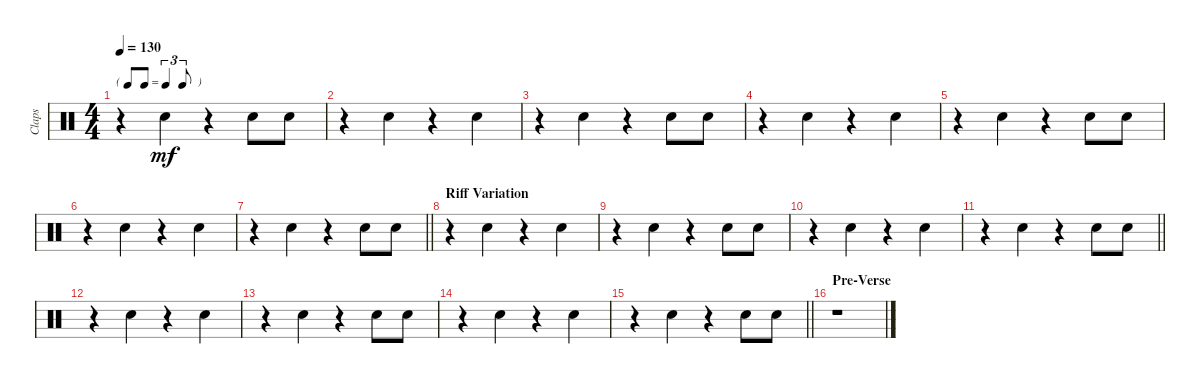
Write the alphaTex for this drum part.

\track ("Claps" "Claps") {instrument percussion}
\staff {score}
\articulation defaults
\ts (4 4)
\tf triplet8th
\tempo 130
\clef neutral
\ks c
r.4{dy mf} "Hand Clap (hit)".4 r.4 "Hand Clap (hit)".8 "Hand Clap (hit)".8 |
r.4 "Hand Clap (hit)".4 r.4 "Hand Clap (hit)".4 |
r.4 "Hand Clap (hit)".4 r.4 "Hand Clap (hit)".8 "Hand Clap (hit)".8 |
r.4 "Hand Clap (hit)".4 r.4 "Hand Clap (hit)".4 |
r.4 "Hand Clap (hit)".4 r.4 "Hand Clap (hit)".8 "Hand Clap (hit)".8 |
r.4 "Hand Clap (hit)".4 r.4 "Hand Clap (hit)".4 |
\barLineRight lightlight
r.4 "Hand Clap (hit)".4 r.4 "Hand Clap (hit)".8 "Hand Clap (hit)".8 |
\section ("" "Riff Variation")
r.4 "Hand Clap (hit)".4 r.4 "Hand Clap (hit)".4 |
r.4 "Hand Clap (hit)".4 r.4 "Hand Clap (hit)".8 "Hand Clap (hit)".8 |
r.4 "Hand Clap (hit)".4 r.4 "Hand Clap (hit)".4 |
\barLineRight lightlight
r.4 "Hand Clap (hit)".4 r.4 "Hand Clap (hit)".8 "Hand Clap (hit)".8 |
r.4 "Hand Clap (hit)".4 r.4 "Hand Clap (hit)".4 |
r.4 "Hand Clap (hit)".4 r.4 "Hand Clap (hit)".8 "Hand Clap (hit)".8 |
r.4 "Hand Clap (hit)".4 r.4 "Hand Clap (hit)".4 |
\barLineRight lightlight
r.4 "Hand Clap (hit)".4 r.4 "Hand Clap (hit)".8 "Hand Clap (hit)".8 |
\section ("" "Pre-Verse")
r.1
